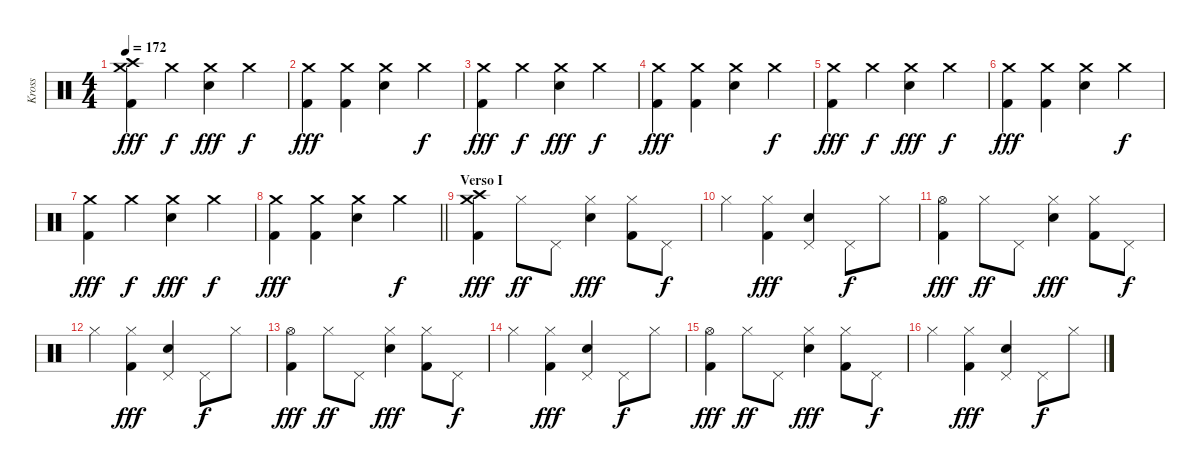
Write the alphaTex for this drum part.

\track ("Kross" "Kross") {instrument percussion}
\staff {score}
\articulation defaults
\ts (4 4)
\tempo 172
\clef neutral
\ks c
("Crash high (hit)" "Crash medium (hit)" "Kick (hit) 2").4{dy fff} "Crash medium (hit)".4{dy f} ("Crash medium (hit)" "Snare (hit) 2").4{dy fff} "Crash medium (hit)".4{dy f} |
("Crash medium (hit)" "Kick (hit) 2").4{dy fff} ("Crash medium (hit)" "Kick (hit) 2").4 ("Crash medium (hit)" "Snare (hit) 2").4 "Crash medium (hit)".4{dy f} |
("Crash medium (hit)" "Kick (hit) 2").4{dy fff} "Crash medium (hit)".4{dy f} ("Crash medium (hit)" "Snare (hit) 2").4{dy fff} "Crash medium (hit)".4{dy f} |
("Crash medium (hit)" "Kick (hit) 2").4{dy fff} ("Crash medium (hit)" "Kick (hit) 2").4 ("Crash medium (hit)" "Snare (hit) 2").4 "Crash medium (hit)".4{dy f} |
("Crash medium (hit)" "Kick (hit) 2").4{dy fff} "Crash medium (hit)".4{dy f} ("Crash medium (hit)" "Snare (hit) 2").4{dy fff} "Crash medium (hit)".4{dy f} |
("Crash medium (hit)" "Kick (hit) 2").4{dy fff} ("Crash medium (hit)" "Kick (hit) 2").4 ("Crash medium (hit)" "Snare (hit) 2").4 "Crash medium (hit)".4{dy f} |
("Crash medium (hit)" "Kick (hit) 2").4{dy fff} "Crash medium (hit)".4{dy f} ("Crash medium (hit)" "Snare (hit) 2").4{dy fff} "Crash medium (hit)".4{dy f} |
\barLineRight lightlight
("Crash medium (hit)" "Kick (hit) 2").4{dy fff} ("Crash medium (hit)" "Kick (hit) 2").4 ("Crash medium (hit)" "Snare (hit) 2").4 "Crash medium (hit)".4{dy f} |
\section ("" "Verso I")
("Crash high (hit)" "Crash medium (hit)" "Kick (hit) 2").4{dy fff} "Hi-Hat (closed)".8{dy ff} "Pedal Hi-Hat (hit)".8 ("Hi-Hat (closed)" "Snare (hit) 2").4{dy fff} ("Hi-Hat (closed)" "Kick (hit) 2").8 "Pedal Hi-Hat (hit)".8{dy f} |
"Hi-Hat (closed)".4 ("Hi-Hat (closed)" "Kick (hit) 2").4{dy fff} ("Pedal Hi-Hat (hit)" "Snare (hit) 2").4 "Pedal Hi-Hat (hit)".8{dy f} "Hi-Hat (closed)".8 |
("Hi-Hat (open)" "Kick (hit) 2").4{dy fff} "Hi-Hat (closed)".8{dy ff} "Pedal Hi-Hat (hit)".8 ("Hi-Hat (closed)" "Snare (hit) 2").4{dy fff} ("Hi-Hat (closed)" "Kick (hit) 2").8 "Pedal Hi-Hat (hit)".8{dy f} |
"Hi-Hat (closed)".4 ("Hi-Hat (closed)" "Kick (hit) 2").4{dy fff} ("Pedal Hi-Hat (hit)" "Snare (hit) 2").4 "Pedal Hi-Hat (hit)".8{dy f} "Hi-Hat (closed)".8 |
("Hi-Hat (open)" "Kick (hit) 2").4{dy fff} "Hi-Hat (closed)".8{dy ff} "Pedal Hi-Hat (hit)".8 ("Hi-Hat (closed)" "Snare (hit) 2").4{dy fff} ("Hi-Hat (closed)" "Kick (hit) 2").8 "Pedal Hi-Hat (hit)".8{dy f} |
"Hi-Hat (closed)".4 ("Hi-Hat (closed)" "Kick (hit) 2").4{dy fff} ("Pedal Hi-Hat (hit)" "Snare (hit) 2").4 "Pedal Hi-Hat (hit)".8{dy f} "Hi-Hat (closed)".8 |
("Hi-Hat (open)" "Kick (hit) 2").4{dy fff} "Hi-Hat (closed)".8{dy ff} "Pedal Hi-Hat (hit)".8 ("Hi-Hat (closed)" "Snare (hit) 2").4{dy fff} ("Hi-Hat (closed)" "Kick (hit) 2").8 "Pedal Hi-Hat (hit)".8{dy f} |
"Hi-Hat (closed)".4 ("Hi-Hat (closed)" "Kick (hit) 2").4{dy fff} ("Pedal Hi-Hat (hit)" "Snare (hit) 2").4 "Pedal Hi-Hat (hit)".8{dy f} "Hi-Hat (closed)".8
